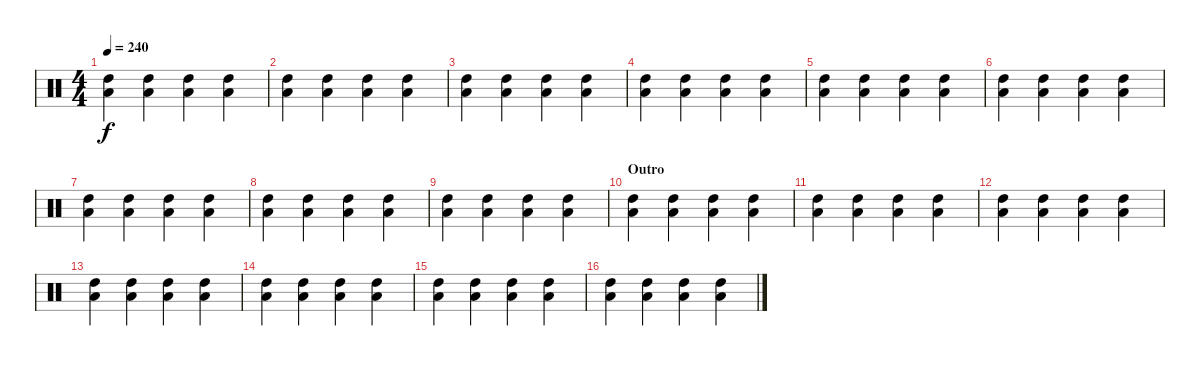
\track "" {instrument percussion}
\staff {score}
\articulation defaults
\ts (4 4)
\tempo 240
\clef neutral
\ks c
("High Tom (hit)" "Low Floor Tom (hit)").4{dy f} ("High Tom (hit)" "Low Floor Tom (hit)").4 ("High Tom (hit)" "Low Floor Tom (hit)").4 ("High Tom (hit)" "Low Floor Tom (hit)").4 |
("High Tom (hit)" "Low Floor Tom (hit)").4 ("High Tom (hit)" "Low Floor Tom (hit)").4 ("High Tom (hit)" "Low Floor Tom (hit)").4 ("High Tom (hit)" "Low Floor Tom (hit)").4 |
("High Tom (hit)" "Low Floor Tom (hit)").4 ("High Tom (hit)" "Low Floor Tom (hit)").4 ("High Tom (hit)" "Low Floor Tom (hit)").4 ("High Tom (hit)" "Low Floor Tom (hit)").4 |
("High Tom (hit)" "Low Floor Tom (hit)").4 ("High Tom (hit)" "Low Floor Tom (hit)").4 ("High Tom (hit)" "Low Floor Tom (hit)").4 ("High Tom (hit)" "Low Floor Tom (hit)").4 |
("High Tom (hit)" "Low Floor Tom (hit)").4 ("High Tom (hit)" "Low Floor Tom (hit)").4 ("High Tom (hit)" "Low Floor Tom (hit)").4 ("High Tom (hit)" "Low Floor Tom (hit)").4 |
("High Tom (hit)" "Low Floor Tom (hit)").4 ("High Tom (hit)" "Low Floor Tom (hit)").4 ("High Tom (hit)" "Low Floor Tom (hit)").4 ("High Tom (hit)" "Low Floor Tom (hit)").4 |
("High Tom (hit)" "Low Floor Tom (hit)").4 ("High Tom (hit)" "Low Floor Tom (hit)").4 ("High Tom (hit)" "Low Floor Tom (hit)").4 ("High Tom (hit)" "Low Floor Tom (hit)").4 |
("High Tom (hit)" "Low Floor Tom (hit)").4 ("High Tom (hit)" "Low Floor Tom (hit)").4 ("High Tom (hit)" "Low Floor Tom (hit)").4 ("High Tom (hit)" "Low Floor Tom (hit)").4 |
("High Tom (hit)" "Low Floor Tom (hit)").4 ("High Tom (hit)" "Low Floor Tom (hit)").4 ("High Tom (hit)" "Low Floor Tom (hit)").4 ("High Tom (hit)" "Low Floor Tom (hit)").4 |
\section ("" "Outro")
("High Tom (hit)" "Low Floor Tom (hit)").4 ("High Tom (hit)" "Low Floor Tom (hit)").4 ("High Tom (hit)" "Low Floor Tom (hit)").4 ("High Tom (hit)" "Low Floor Tom (hit)").4 |
("High Tom (hit)" "Low Floor Tom (hit)").4 ("High Tom (hit)" "Low Floor Tom (hit)").4 ("High Tom (hit)" "Low Floor Tom (hit)").4 ("High Tom (hit)" "Low Floor Tom (hit)").4 |
("High Tom (hit)" "Low Floor Tom (hit)").4 ("High Tom (hit)" "Low Floor Tom (hit)").4 ("High Tom (hit)" "Low Floor Tom (hit)").4 ("High Tom (hit)" "Low Floor Tom (hit)").4 |
("High Tom (hit)" "Low Floor Tom (hit)").4 ("High Tom (hit)" "Low Floor Tom (hit)").4 ("High Tom (hit)" "Low Floor Tom (hit)").4 ("High Tom (hit)" "Low Floor Tom (hit)").4 |
("High Tom (hit)" "Low Floor Tom (hit)").4 ("High Tom (hit)" "Low Floor Tom (hit)").4 ("High Tom (hit)" "Low Floor Tom (hit)").4 ("High Tom (hit)" "Low Floor Tom (hit)").4 |
("High Tom (hit)" "Low Floor Tom (hit)").4 ("High Tom (hit)" "Low Floor Tom (hit)").4 ("High Tom (hit)" "Low Floor Tom (hit)").4 ("High Tom (hit)" "Low Floor Tom (hit)").4 |
("High Tom (hit)" "Low Floor Tom (hit)").4 ("High Tom (hit)" "Low Floor Tom (hit)").4 ("High Tom (hit)" "Low Floor Tom (hit)").4 ("High Tom (hit)" "Low Floor Tom (hit)").4
